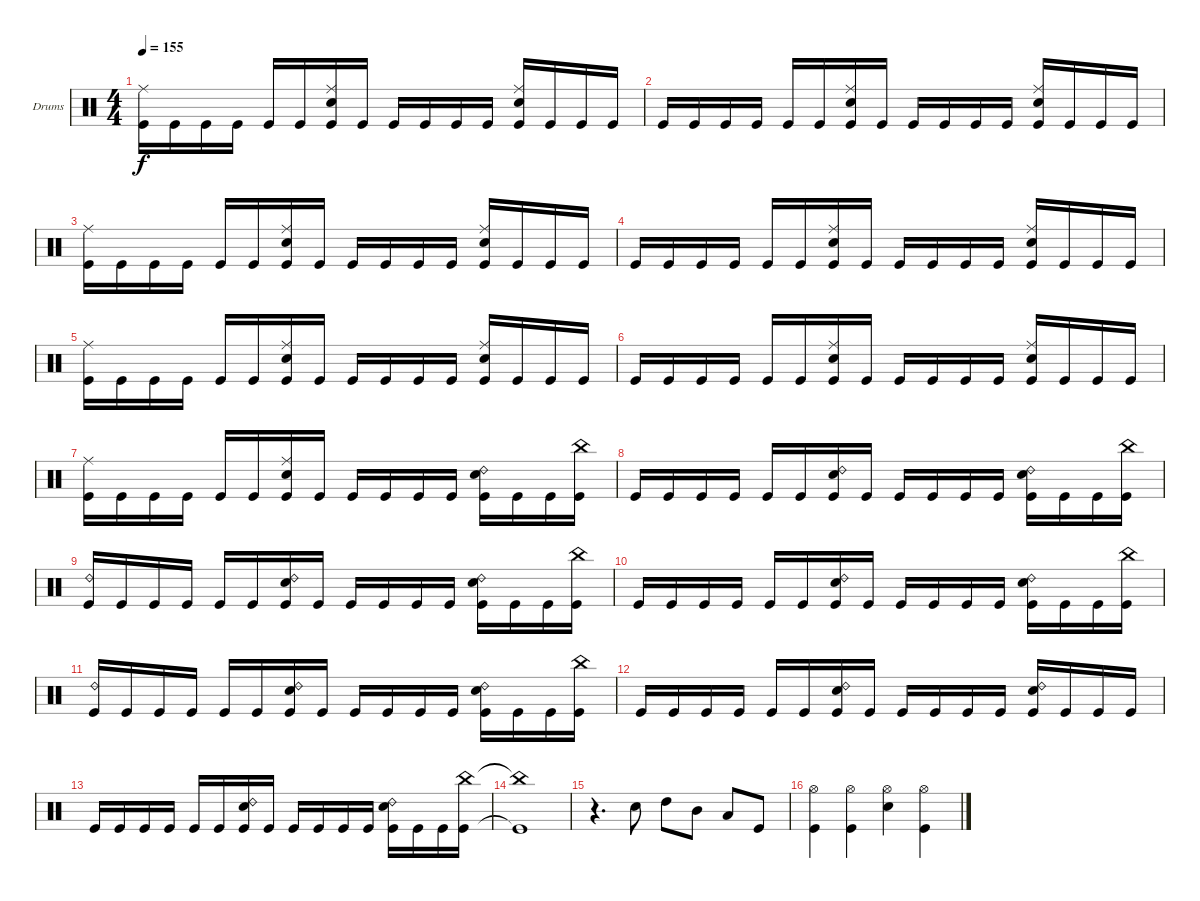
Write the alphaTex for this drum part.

\defaultSystemsLayout 4
\bracketExtendMode groupsimilarinstruments
\firstSystemTrackNameOrientation horizontal
\otherSystemsTrackNameOrientation horizontal
\track ("Drumkit" "Drums") {instrument percussion}
\staff {score}
\articulation defaults
\ts (4 4)
\tempo 155
\clef neutral
\ks c
("Kick (hit)" "Ride (middle)").16{dy f} "Kick (hit)".16 "Kick (hit)".16 "Kick (hit)".16 "Kick (hit)".16 "Kick (hit)".16 ("Kick (hit)" "Snare (hit) 2" "Ride (middle)").16 "Kick (hit)".16 "Kick (hit)".16 "Kick (hit)".16 "Kick (hit)".16 "Kick (hit)".16 ("Kick (hit)" "Snare (hit) 2" "Ride (middle)").16 "Kick (hit)".16 "Kick (hit)".16 "Kick (hit)".16 |
"Kick (hit)".16 "Kick (hit)".16 "Kick (hit)".16 "Kick (hit)".16 "Kick (hit)".16 "Kick (hit)".16 ("Kick (hit)" "Snare (hit) 2" "Ride (middle)").16 "Kick (hit)".16 "Kick (hit)".16 "Kick (hit)".16 "Kick (hit)".16 "Kick (hit)".16 ("Kick (hit)" "Snare (hit) 2" "Ride (middle)").16 "Kick (hit)".16 "Kick (hit)".16 "Kick (hit)".16 |
("Kick (hit)" "Ride (middle)").16 "Kick (hit)".16 "Kick (hit)".16 "Kick (hit)".16 "Kick (hit)".16 "Kick (hit)".16 ("Kick (hit)" "Snare (hit) 2" "Ride (middle)").16 "Kick (hit)".16 "Kick (hit)".16 "Kick (hit)".16 "Kick (hit)".16 "Kick (hit)".16 ("Kick (hit)" "Snare (hit) 2" "Ride (middle)").16 "Kick (hit)".16 "Kick (hit)".16 "Kick (hit)".16 |
"Kick (hit)".16 "Kick (hit)".16 "Kick (hit)".16 "Kick (hit)".16 "Kick (hit)".16 "Kick (hit)".16 ("Kick (hit)" "Snare (hit) 2" "Ride (middle)").16 "Kick (hit)".16 "Kick (hit)".16 "Kick (hit)".16 "Kick (hit)".16 "Kick (hit)".16 ("Kick (hit)" "Snare (hit) 2" "Ride (middle)").16 "Kick (hit)".16 "Kick (hit)".16 "Kick (hit)".16 |
("Kick (hit)" "Ride (middle)").16 "Kick (hit)".16 "Kick (hit)".16 "Kick (hit)".16 "Kick (hit)".16 "Kick (hit)".16 ("Kick (hit)" "Snare (hit) 2" "Ride (middle)").16 "Kick (hit)".16 "Kick (hit)".16 "Kick (hit)".16 "Kick (hit)".16 "Kick (hit)".16 ("Kick (hit)" "Snare (hit) 2" "Ride (middle)").16 "Kick (hit)".16 "Kick (hit)".16 "Kick (hit)".16 |
"Kick (hit)".16 "Kick (hit)".16 "Kick (hit)".16 "Kick (hit)".16 "Kick (hit)".16 "Kick (hit)".16 ("Kick (hit)" "Snare (hit) 2" "Ride (middle)").16 "Kick (hit)".16 "Kick (hit)".16 "Kick (hit)".16 "Kick (hit)".16 "Kick (hit)".16 ("Kick (hit)" "Snare (hit) 2" "Ride (middle)").16 "Kick (hit)".16 "Kick (hit)".16 "Kick (hit)".16 |
("Kick (hit)" "Ride (middle)").16 "Kick (hit)".16 "Kick (hit)".16 "Kick (hit)".16 "Kick (hit)".16 "Kick (hit)".16 ("Kick (hit)" "Snare (hit) 2" "Ride (middle)").16 "Kick (hit)".16 "Kick (hit)".16 "Kick (hit)".16 "Kick (hit)".16 "Kick (hit)".16 ("Kick (hit)" "Snare (hit) 2" "Ride (bell) 2").16 "Kick (hit)".16 "Kick (hit)".16 ("Kick (hit)" "China (hit)").16 |
"Kick (hit)".16 "Kick (hit)".16 "Kick (hit)".16 "Kick (hit)".16 "Kick (hit)".16 "Kick (hit)".16 ("Kick (hit)" "Snare (hit) 2" "Ride (bell) 2").16 "Kick (hit)".16 "Kick (hit)".16 "Kick (hit)".16 "Kick (hit)".16 "Kick (hit)".16 ("Kick (hit)" "Snare (hit) 2" "Ride (bell) 2").16 "Kick (hit)".16 "Kick (hit)".16 ("Kick (hit)" "China (hit)").16 |
("Kick (hit)" "Ride (bell) 2").16 "Kick (hit)".16 "Kick (hit)".16 "Kick (hit)".16 "Kick (hit)".16 "Kick (hit)".16 ("Kick (hit)" "Snare (hit) 2" "Ride (bell) 2").16 "Kick (hit)".16 "Kick (hit)".16 "Kick (hit)".16 "Kick (hit)".16 "Kick (hit)".16 ("Kick (hit)" "Snare (hit) 2" "Ride (bell) 2").16 "Kick (hit)".16 "Kick (hit)".16 ("Kick (hit)" "China (hit)").16 |
"Kick (hit)".16 "Kick (hit)".16 "Kick (hit)".16 "Kick (hit)".16 "Kick (hit)".16 "Kick (hit)".16 ("Kick (hit)" "Snare (hit) 2" "Ride (bell) 2").16 "Kick (hit)".16 "Kick (hit)".16 "Kick (hit)".16 "Kick (hit)".16 "Kick (hit)".16 ("Kick (hit)" "Snare (hit) 2" "Ride (bell) 2").16 "Kick (hit)".16 "Kick (hit)".16 ("Kick (hit)" "China (hit)").16 |
("Kick (hit)" "Ride (bell) 2").16 "Kick (hit)".16 "Kick (hit)".16 "Kick (hit)".16 "Kick (hit)".16 "Kick (hit)".16 ("Kick (hit)" "Snare (hit) 2" "Ride (bell) 2").16 "Kick (hit)".16 "Kick (hit)".16 "Kick (hit)".16 "Kick (hit)".16 "Kick (hit)".16 ("Kick (hit)" "Snare (hit) 2" "Ride (bell) 2").16 "Kick (hit)".16 "Kick (hit)".16 ("Kick (hit)" "China (hit)").16 |
"Kick (hit)".16 "Kick (hit)".16 "Kick (hit)".16 "Kick (hit)".16 "Kick (hit)".16 "Kick (hit)".16 ("Kick (hit)" "Snare (hit) 2" "Ride (bell) 2").16 "Kick (hit)".16 "Kick (hit)".16 "Kick (hit)".16 "Kick (hit)".16 "Kick (hit)".16 ("Kick (hit)" "Snare (hit) 2" "Ride (bell) 2").16 "Kick (hit)".16 "Kick (hit)".16 "Kick (hit)".16 |
"Kick (hit)".16 "Kick (hit)".16 "Kick (hit)".16 "Kick (hit)".16 "Kick (hit)".16 "Kick (hit)".16 ("Kick (hit)" "Snare (hit) 2" "Ride (bell) 2").16 "Kick (hit)".16 "Kick (hit)".16 "Kick (hit)".16 "Kick (hit)".16 "Kick (hit)".16 ("Kick (hit)" "Snare (hit) 2" "Ride (bell) 2").16 "Kick (hit)".16 "Kick (hit)".16 ("Kick (hit)" "China (hit)").16 |
("Kick (hit)"{t} "China (hit)"{t}).1 |
r.4{d} "Snare (hit) 2".8 "High Tom (hit)".8 "Mid Tom (hit)".8 "Low Tom (hit)".8 "Kick (hit)".8 |
("Kick (hit)" "Hi-Hat (open)").4 ("Kick (hit)" "Hi-Hat (open)").4 ("Snare (hit) 2" "Hi-Hat (open)").4 ("Kick (hit)" "Hi-Hat (open)").4
